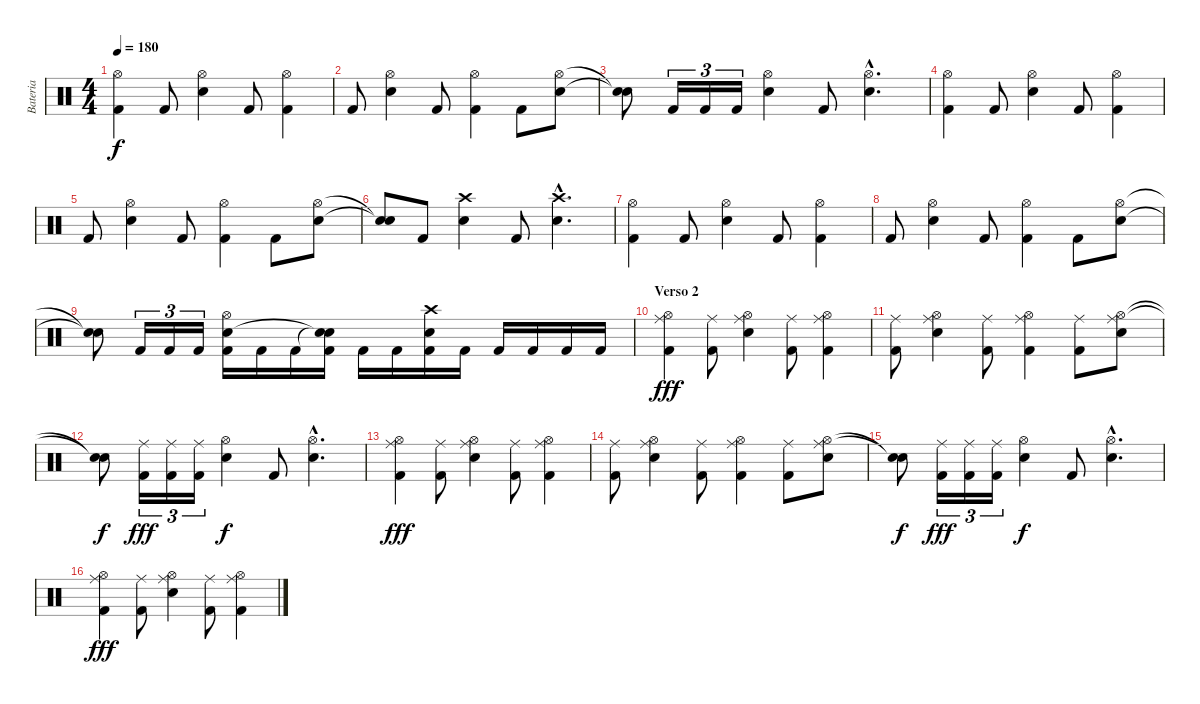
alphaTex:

\track ("Bateria" "Bateria") {instrument percussion}
\staff {score}
\articulation defaults
\ts (4 4)
\tempo 180
\clef neutral
\ks c
("Hi-Hat (open)" "Kick (hit) 2").4{dy f} "Kick (hit) 2".8 ("Hi-Hat (open)" "Electric Snare (hit)").4 "Kick (hit) 2".8 ("Hi-Hat (open)" "Kick (hit) 2").4 |
"Kick (hit) 2".8 ("Hi-Hat (open)" "Electric Snare (hit)").4 "Kick (hit) 2".8 ("Hi-Hat (open)" "Kick (hit) 2").4 "Kick (hit) 2".8 ("Hi-Hat (open)" "Electric Snare (hit)").8 |
("Snare (hit)"{t} "Snare (hit)"{t}).8 "Kick (hit) 2".16{tu (3 2)} "Kick (hit) 2".16{tu (3 2)} "Kick (hit) 2".16{tu (3 2)} ("Hi-Hat (open)" "Electric Snare (hit)").4 "Kick (hit) 2".8 ("Hi-Hat (open)"{hac} "Electric Snare (hit)"{hac}).4{d} |
("Hi-Hat (open)" "Kick (hit) 2").4 "Kick (hit) 2".8 ("Hi-Hat (open)" "Electric Snare (hit)").4 "Kick (hit) 2".8 ("Hi-Hat (open)" "Kick (hit) 2").4 |
"Kick (hit) 2".8 ("Hi-Hat (open)" "Electric Snare (hit)").4 "Kick (hit) 2".8 ("Hi-Hat (open)" "Kick (hit) 2").4 "Kick (hit) 2".8 ("Hi-Hat (open)" "Electric Snare (hit)").8 |
("Snare (hit)"{t} "Snare (hit)"{t}).8 "Kick (hit) 2".8 ("Crash high (hit)" "Electric Snare (hit)").4 "Kick (hit) 2".8 ("Crash high (hit)"{hac} "Electric Snare (hit)"{hac}).4{d} |
("Hi-Hat (open)" "Kick (hit) 2").4 "Kick (hit) 2".8 ("Hi-Hat (open)" "Electric Snare (hit)").4 "Kick (hit) 2".8 ("Hi-Hat (open)" "Kick (hit) 2").4 |
"Kick (hit) 2".8 ("Hi-Hat (open)" "Electric Snare (hit)").4 "Kick (hit) 2".8 ("Hi-Hat (open)" "Kick (hit) 2").4 "Kick (hit) 2".8 ("Hi-Hat (open)" "Electric Snare (hit)").8 |
("Snare (hit)"{t} "Snare (hit)"{t}).8 "Kick (hit) 2".16{tu (3 2)} "Kick (hit) 2".16{tu (3 2)} "Kick (hit) 2".16{tu (3 2)} ("Hi-Hat (open)" "Electric Snare (hit)" "Kick (hit) 2").16 "Kick (hit) 2".16 "Kick (hit) 2".16 ("Snare (hit)"{t} "Snare (hit)"{t} "Kick (hit) 2").16 "Kick (hit) 2".16 "Kick (hit) 2".16 ("Crash high (hit)" "Electric Snare (hit)" "Kick (hit) 2").16 "Kick (hit) 2".16 "Kick (hit) 2".16 "Kick (hit) 2".16 "Kick (hit) 2".16 "Kick (hit) 2".16 |
\section ("" "Verso 2")
("Hi-Hat (open)" "Ride (middle)" "Kick (hit) 2").4{dy fff} ("Ride (middle)" "Kick (hit) 2").8 ("Hi-Hat (open)" "Ride (middle)" "Electric Snare (hit)").4 ("Ride (middle)" "Kick (hit) 2").8 ("Hi-Hat (open)" "Ride (middle)" "Kick (hit) 2").4 |
("Ride (middle)" "Kick (hit) 2").8 ("Hi-Hat (open)" "Ride (middle)" "Electric Snare (hit)").4 ("Ride (middle)" "Kick (hit) 2").8 ("Hi-Hat (open)" "Ride (middle)" "Kick (hit) 2").4 ("Ride (middle)" "Kick (hit) 2").8 ("Hi-Hat (open)" "Ride (middle)" "Electric Snare (hit)").8 |
("Snare (hit)"{t} "Snare (hit)"{t}).8{dy f} ("Ride (middle)" "Kick (hit) 2").16{tu (3 2) dy fff} ("Ride (middle)" "Kick (hit) 2").16{tu (3 2)} ("Ride (middle)" "Kick (hit) 2").16{tu (3 2)} ("Hi-Hat (open)" "Electric Snare (hit)").4{dy f} "Kick (hit) 2".8 ("Hi-Hat (open)"{hac} "Electric Snare (hit)"{hac}).4{d} |
("Hi-Hat (open)" "Ride (middle)" "Kick (hit) 2").4{dy fff} ("Ride (middle)" "Kick (hit) 2").8 ("Hi-Hat (open)" "Ride (middle)" "Electric Snare (hit)").4 ("Ride (middle)" "Kick (hit) 2").8 ("Hi-Hat (open)" "Ride (middle)" "Kick (hit) 2").4 |
("Ride (middle)" "Kick (hit) 2").8 ("Hi-Hat (open)" "Ride (middle)" "Electric Snare (hit)").4 ("Ride (middle)" "Kick (hit) 2").8 ("Hi-Hat (open)" "Ride (middle)" "Kick (hit) 2").4 ("Ride (middle)" "Kick (hit) 2").8 ("Hi-Hat (open)" "Ride (middle)" "Electric Snare (hit)").8 |
("Snare (hit)"{t} "Snare (hit)"{t}).8{dy f} ("Ride (middle)" "Kick (hit) 2").16{tu (3 2) dy fff} ("Ride (middle)" "Kick (hit) 2").16{tu (3 2)} ("Ride (middle)" "Kick (hit) 2").16{tu (3 2)} ("Hi-Hat (open)" "Electric Snare (hit)").4{dy f} "Kick (hit) 2".8 ("Hi-Hat (open)"{hac} "Electric Snare (hit)"{hac}).4{d} |
("Hi-Hat (open)" "Ride (middle)" "Kick (hit) 2").4{dy fff} ("Ride (middle)" "Kick (hit) 2").8 ("Hi-Hat (open)" "Ride (middle)" "Electric Snare (hit)").4 ("Ride (middle)" "Kick (hit) 2").8 ("Hi-Hat (open)" "Ride (middle)" "Kick (hit) 2").4
